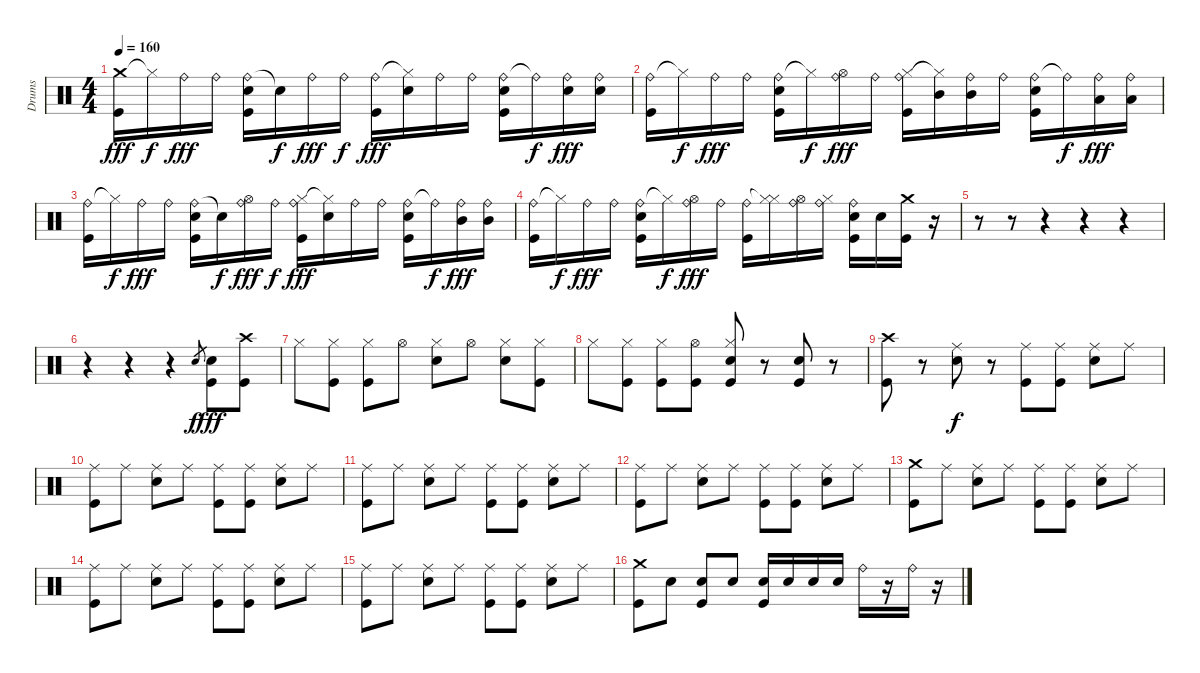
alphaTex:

\track ("Drums" "Drums") {instrument percussion}
\staff {score}
\articulation defaults
\ts (4 4)
\tempo 160
\clef neutral
\ks c
("Crash medium (hit)" "Kick (hit)").16{dy fff} "Hi-Hat (closed)"{t}.16{dy f} "Ride (bell)".16{dy fff} "Ride (bell)".16 ("Ride (bell)" "Electric Snare (hit)" "Kick (hit)").16 "Snare (hit)"{t}.16{dy f} "Ride (bell)".16{dy fff} "Ride (bell)".16{dy f} ("Ride (bell)" "Kick (hit)").16{dy fff} ("Hi-Hat (closed)"{t} "Electric Snare (hit)").16 "Ride (bell)".16 "Ride (bell)".16 ("Ride (bell)" "Electric Snare (hit)" "Kick (hit)").16 "Ride (bell)"{t}.16{dy f} ("Ride (bell)" "Electric Snare (hit)").16{dy fff} ("Ride (bell)" "Electric Snare (hit)").16 |
("Ride (bell)" "Kick (hit)").16 "Hi-Hat (closed)"{t}.16{dy f} "Ride (bell)".16{dy fff} "Ride (bell)".16 ("Ride (bell)" "Electric Snare (hit)" "Kick (hit)").16 "Hi-Hat (closed)"{t}.16{dy f} ("Ride (bell)" "Hi-Hat (open)").16{dy fff} "Ride (bell)".16 ("Ride (bell)" "Hi-Hat (closed)" "Kick (hit)").16 ("Hi-Hat (closed)"{t} "Mid Tom (hit)").16 ("Ride (bell)" "Mid Tom (hit)").16 "Ride (bell)".16 ("Ride (bell)" "Electric Snare (hit)" "Kick (hit)").16 "Ride (bell)"{t}.16{dy f} ("Ride (bell)" "Low Tom (hit)").16{dy fff} ("Ride (bell)" "Low Tom (hit)").16 |
("Ride (bell)" "Kick (hit)").16 "Hi-Hat (closed)"{t}.16{dy f} "Ride (bell)".16{dy fff} "Ride (bell)".16 ("Ride (bell)" "Electric Snare (hit)" "Kick (hit)").16 "Snare (hit)"{t}.16{dy f} ("Ride (bell)" "Hi-Hat (open)").16{dy fff} "Ride (bell)".16{dy f} ("Ride (bell)" "Hi-Hat (closed)" "Kick (hit)").16{dy fff} ("Hi-Hat (closed)"{t} "Electric Snare (hit)").16 "Ride (bell)".16 "Ride (bell)".16 ("Ride (bell)" "Electric Snare (hit)" "Kick (hit)").16 "Ride (bell)"{t}.16{dy f} ("Ride (bell)" "Mid Tom (hit)").16{dy fff} ("Ride (bell)" "Mid Tom (hit)").16 |
("Ride (bell)" "Kick (hit)").16 "Hi-Hat (closed)"{t}.16{dy f} "Ride (bell)".16{dy fff} "Ride (bell)".16 ("Ride (bell)" "Electric Snare (hit)" "Kick (hit)").16 "Hi-Hat (closed)"{t}.16{dy f} ("Ride (bell)" "Hi-Hat (open)").16{dy fff} "Ride (bell)".16 ("Ride (bell)" "Kick (hit)").16 ("Hi-Hat (closed)"{t} "Hi-Hat (closed)").16 ("Ride (bell)" "Hi-Hat (open)").16 ("Ride (bell)" "Hi-Hat (closed)").16 ("Ride (bell)" "Electric Snare (hit)" "Kick (hit)").16 "Electric Snare (hit)".16 ("Crash medium (hit)" "Kick (hit)").16 r.16 |
r.8 r.8 r.4 r.4 r.4 |
r.4 r.4 r.4 "Electric Snare (hit)".8{gr dy f} ("Electric Snare (hit)" "Kick (hit)").8{dy fff} ("Crash high (hit)" "Kick (hit)").8 |
"Hi-Hat (closed)".8 ("Hi-Hat (closed)" "Kick (hit)").8 ("Hi-Hat (closed)" "Kick (hit)").8 "Hi-Hat (open)".8 ("Hi-Hat (closed)" "Electric Snare (hit)").8 "Hi-Hat (open)".8 ("Hi-Hat (closed)" "Electric Snare (hit)").8 ("Hi-Hat (closed)" "Kick (hit)").8 |
"Hi-Hat (closed)".8 ("Hi-Hat (closed)" "Kick (hit)").8 ("Hi-Hat (closed)" "Kick (hit)").8 ("Hi-Hat (open)" "Kick (hit)").8 ("Hi-Hat (closed)" "Electric Snare (hit)" "Kick (hit)").8 r.8 ("Snare (hit) 2" "Kick (hit)").8 r.8 |
("Crash high (hit)" "Kick (hit)").8 r.8 ("Ride (middle)" "Electric Snare (hit)").8{dy f} r.8 ("Ride (middle)" "Kick (hit)").8 ("Ride (middle)" "Kick (hit)").8 ("Ride (middle)" "Electric Snare (hit)").8 "Ride (middle)".8 |
("Ride (middle)" "Kick (hit)").8 "Ride (middle)".8 ("Ride (middle)" "Electric Snare (hit)").8 "Ride (middle)".8 ("Ride (middle)" "Kick (hit)").8 ("Ride (middle)" "Kick (hit)").8 ("Ride (middle)" "Electric Snare (hit)").8 "Ride (middle)".8 |
("Ride (middle)" "Kick (hit)").8 "Ride (middle)".8 ("Ride (middle)" "Electric Snare (hit)").8 "Ride (middle)".8 ("Ride (middle)" "Kick (hit)").8 ("Ride (middle)" "Kick (hit)").8 ("Ride (middle)" "Electric Snare (hit)").8 "Ride (middle)".8 |
("Ride (middle)" "Kick (hit)").8 "Ride (middle)".8 ("Ride (middle)" "Electric Snare (hit)").8 "Ride (middle)".8 ("Ride (middle)" "Kick (hit)").8 ("Ride (middle)" "Kick (hit)").8 ("Ride (middle)" "Electric Snare (hit)").8 "Ride (middle)".8 |
("Crash medium (hit)" "Kick (hit)").8 "Ride (middle)".8 ("Ride (middle)" "Electric Snare (hit)").8 "Ride (middle)".8 ("Ride (middle)" "Kick (hit)").8 ("Ride (middle)" "Kick (hit)").8 ("Ride (middle)" "Electric Snare (hit)").8 "Ride (middle)".8 |
("Ride (middle)" "Kick (hit)").8 "Ride (middle)".8 ("Ride (middle)" "Electric Snare (hit)").8 "Ride (middle)".8 ("Ride (middle)" "Kick (hit)").8 ("Ride (middle)" "Kick (hit)").8 ("Ride (middle)" "Electric Snare (hit)").8 "Ride (middle)".8 |
("Ride (middle)" "Kick (hit)").8 "Ride (middle)".8 ("Ride (middle)" "Electric Snare (hit)").8 "Ride (middle)".8 ("Ride (middle)" "Kick (hit)").8 ("Ride (middle)" "Kick (hit)").8 ("Ride (middle)" "Electric Snare (hit)").8 "Ride (middle)".8 |
("Crash medium (hit)" "Kick (hit)").8 "Electric Snare (hit)".8 ("Electric Snare (hit)" "Kick (hit)").8 "Electric Snare (hit)".8 ("Electric Snare (hit)" "Kick (hit)").16 "Electric Snare (hit)".16 "Electric Snare (hit)".16 "Electric Snare (hit)".16 "Ride (bell)".16 r.16 "Ride (bell)".16 r.16
